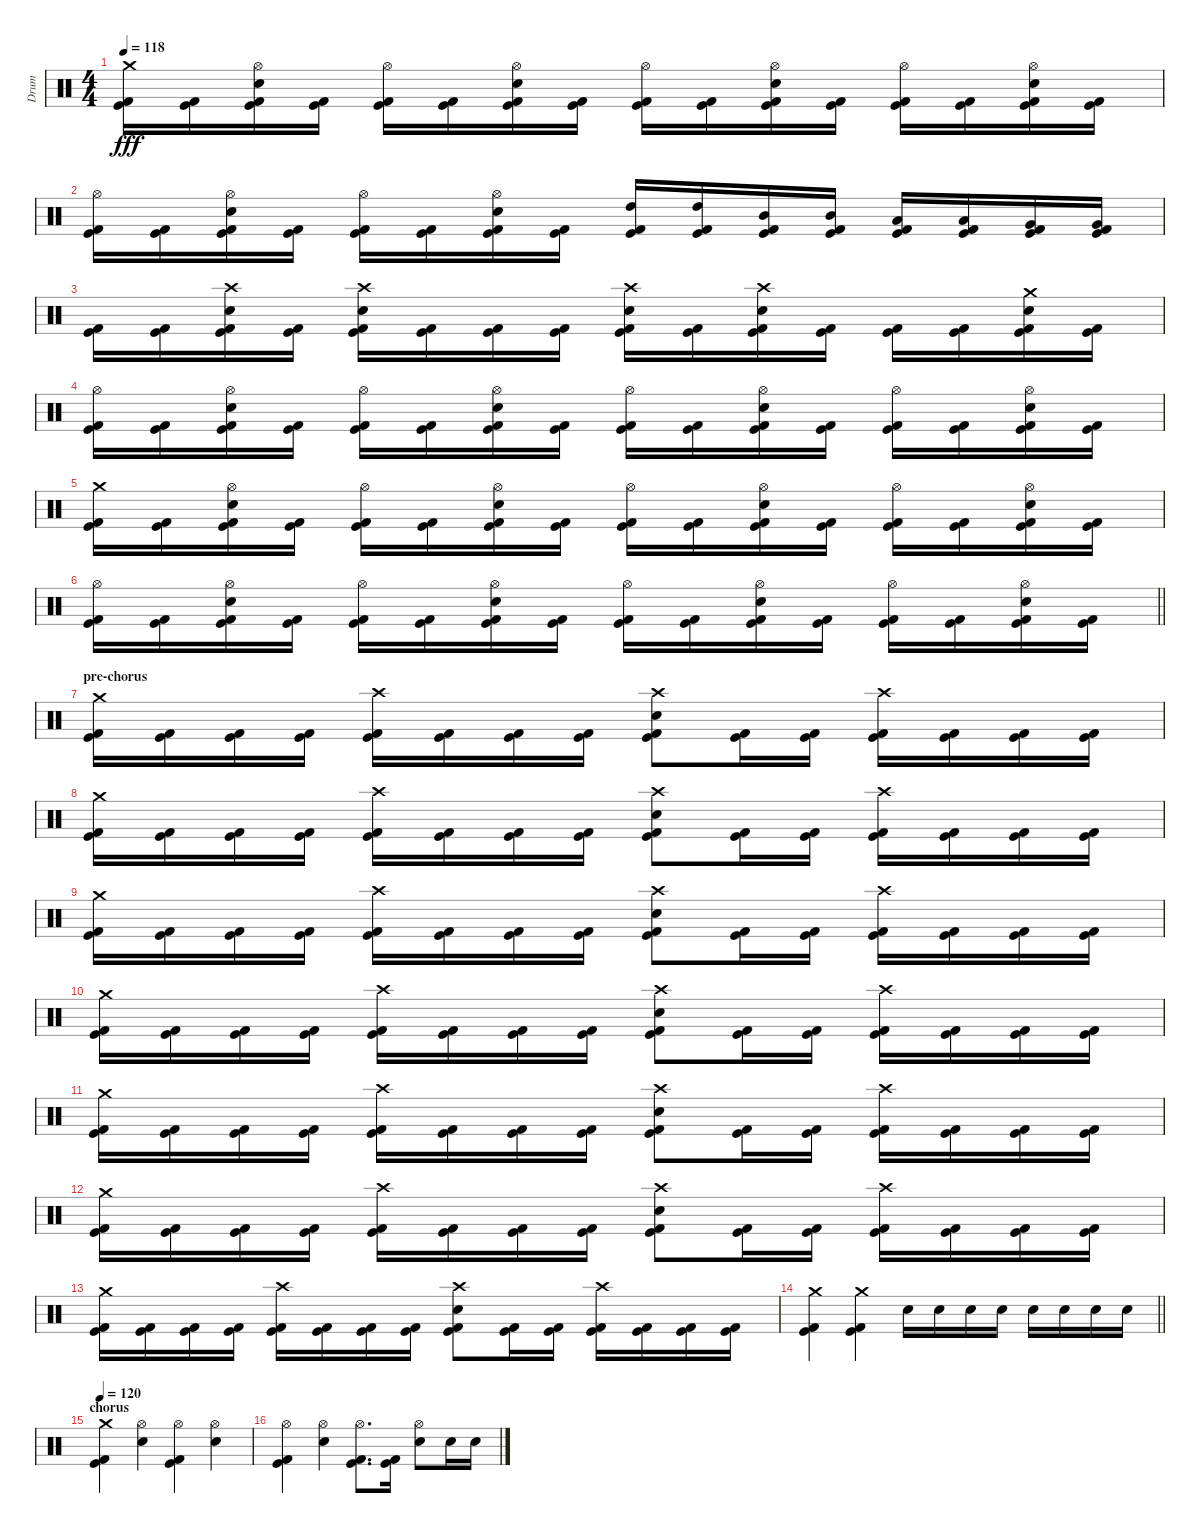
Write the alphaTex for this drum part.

\track ("Drum" "Drum") {instrument percussion}
\staff {score}
\articulation defaults
\ts (4 4)
\tempo 118
\clef neutral
\ks c
("Crash medium (hit)" "Kick (hit)" "Kick (hit) 2").16{dy fff} ("Kick (hit)" "Kick (hit) 2").16 ("Hi-Hat (open)" "Electric Snare (hit)" "Kick (hit)" "Kick (hit) 2").16 ("Kick (hit)" "Kick (hit) 2").16 ("Hi-Hat (open)" "Kick (hit)" "Kick (hit) 2").16 ("Kick (hit)" "Kick (hit) 2").16 ("Hi-Hat (open)" "Electric Snare (hit)" "Kick (hit)" "Kick (hit) 2").16 ("Kick (hit)" "Kick (hit) 2").16 ("Hi-Hat (open)" "Kick (hit)" "Kick (hit) 2").16 ("Kick (hit)" "Kick (hit) 2").16 ("Hi-Hat (open)" "Electric Snare (hit)" "Kick (hit)" "Kick (hit) 2").16 ("Kick (hit)" "Kick (hit) 2").16 ("Hi-Hat (open)" "Kick (hit)" "Kick (hit) 2").16 ("Kick (hit)" "Kick (hit) 2").16 ("Hi-Hat (open)" "Electric Snare (hit)" "Kick (hit)" "Kick (hit) 2").16 ("Kick (hit)" "Kick (hit) 2").16 |
("Hi-Hat (open)" "Kick (hit)" "Kick (hit) 2").16 ("Kick (hit)" "Kick (hit) 2").16 ("Hi-Hat (open)" "Electric Snare (hit)" "Kick (hit)" "Kick (hit) 2").16 ("Kick (hit)" "Kick (hit) 2").16 ("Hi-Hat (open)" "Kick (hit)" "Kick (hit) 2").16 ("Kick (hit)" "Kick (hit) 2").16 ("Hi-Hat (open)" "Electric Snare (hit)" "Kick (hit)" "Kick (hit) 2").16 ("Kick (hit)" "Kick (hit) 2").16 ("High Tom (hit)" "Kick (hit)" "Kick (hit) 2").16 ("High Tom (hit)" "Kick (hit)" "Kick (hit) 2").16 ("Mid Tom (hit)" "Kick (hit)" "Kick (hit) 2").16 ("Mid Tom (hit)" "Kick (hit)" "Kick (hit) 2").16 ("Low Tom (hit)" "Kick (hit)" "Kick (hit) 2").16 ("Low Tom (hit)" "Kick (hit)" "Kick (hit) 2").16 ("Very Low Tom (hit)" "Kick (hit)" "Kick (hit) 2").16 ("Very Low Tom (hit)" "Kick (hit)" "Kick (hit) 2").16 |
("Kick (hit)" "Kick (hit) 2").16 ("Kick (hit)" "Kick (hit) 2").16 ("Crash high (hit)" "Electric Snare (hit)" "Kick (hit)" "Kick (hit) 2").16 ("Kick (hit)" "Kick (hit) 2").16 ("Crash high (hit)" "Electric Snare (hit)" "Kick (hit)" "Kick (hit) 2").16 ("Kick (hit)" "Kick (hit) 2").16 ("Kick (hit)" "Kick (hit) 2").16 ("Kick (hit)" "Kick (hit) 2").16 ("Crash high (hit)" "Electric Snare (hit)" "Kick (hit)" "Kick (hit) 2").16 ("Kick (hit)" "Kick (hit) 2").16 ("Crash high (hit)" "Electric Snare (hit)" "Kick (hit)" "Kick (hit) 2").16 ("Kick (hit)" "Kick (hit) 2").16 ("Kick (hit)" "Kick (hit) 2").16 ("Kick (hit)" "Kick (hit) 2").16 ("Crash medium (hit)" "Electric Snare (hit)" "Kick (hit)" "Kick (hit) 2").16 ("Kick (hit)" "Kick (hit) 2").16 |
("Hi-Hat (open)" "Kick (hit)" "Kick (hit) 2").16 ("Kick (hit)" "Kick (hit) 2").16 ("Hi-Hat (open)" "Electric Snare (hit)" "Kick (hit)" "Kick (hit) 2").16 ("Kick (hit)" "Kick (hit) 2").16 ("Hi-Hat (open)" "Kick (hit)" "Kick (hit) 2").16 ("Kick (hit)" "Kick (hit) 2").16 ("Hi-Hat (open)" "Electric Snare (hit)" "Kick (hit)" "Kick (hit) 2").16 ("Kick (hit)" "Kick (hit) 2").16 ("Hi-Hat (open)" "Kick (hit)" "Kick (hit) 2").16 ("Kick (hit)" "Kick (hit) 2").16 ("Hi-Hat (open)" "Electric Snare (hit)" "Kick (hit)" "Kick (hit) 2").16 ("Kick (hit)" "Kick (hit) 2").16 ("Hi-Hat (open)" "Kick (hit)" "Kick (hit) 2").16 ("Kick (hit)" "Kick (hit) 2").16 ("Hi-Hat (open)" "Electric Snare (hit)" "Kick (hit)" "Kick (hit) 2").16 ("Kick (hit)" "Kick (hit) 2").16 |
("Crash medium (hit)" "Kick (hit)" "Kick (hit) 2").16 ("Kick (hit)" "Kick (hit) 2").16 ("Hi-Hat (open)" "Electric Snare (hit)" "Kick (hit)" "Kick (hit) 2").16 ("Kick (hit)" "Kick (hit) 2").16 ("Hi-Hat (open)" "Kick (hit)" "Kick (hit) 2").16 ("Kick (hit)" "Kick (hit) 2").16 ("Hi-Hat (open)" "Electric Snare (hit)" "Kick (hit)" "Kick (hit) 2").16 ("Kick (hit)" "Kick (hit) 2").16 ("Hi-Hat (open)" "Kick (hit)" "Kick (hit) 2").16 ("Kick (hit)" "Kick (hit) 2").16 ("Hi-Hat (open)" "Electric Snare (hit)" "Kick (hit)" "Kick (hit) 2").16 ("Kick (hit)" "Kick (hit) 2").16 ("Hi-Hat (open)" "Kick (hit)" "Kick (hit) 2").16 ("Kick (hit)" "Kick (hit) 2").16 ("Hi-Hat (open)" "Electric Snare (hit)" "Kick (hit)" "Kick (hit) 2").16 ("Kick (hit)" "Kick (hit) 2").16 |
\barLineRight lightlight
("Hi-Hat (open)" "Kick (hit)" "Kick (hit) 2").16 ("Kick (hit)" "Kick (hit) 2").16 ("Hi-Hat (open)" "Electric Snare (hit)" "Kick (hit)" "Kick (hit) 2").16 ("Kick (hit)" "Kick (hit) 2").16 ("Hi-Hat (open)" "Kick (hit)" "Kick (hit) 2").16 ("Kick (hit)" "Kick (hit) 2").16 ("Hi-Hat (open)" "Electric Snare (hit)" "Kick (hit)" "Kick (hit) 2").16 ("Kick (hit)" "Kick (hit) 2").16 ("Hi-Hat (open)" "Kick (hit)" "Kick (hit) 2").16 ("Kick (hit)" "Kick (hit) 2").16 ("Hi-Hat (open)" "Electric Snare (hit)" "Kick (hit)" "Kick (hit) 2").16 ("Kick (hit)" "Kick (hit) 2").16 ("Hi-Hat (open)" "Kick (hit)" "Kick (hit) 2").16 ("Kick (hit)" "Kick (hit) 2").16 ("Hi-Hat (open)" "Electric Snare (hit)" "Kick (hit)" "Kick (hit) 2").16 ("Kick (hit)" "Kick (hit) 2").16 |
\section ("" "pre-chorus")
("Crash medium (hit)" "Kick (hit)" "Kick (hit) 2").16 ("Kick (hit)" "Kick (hit) 2").16 ("Kick (hit)" "Kick (hit) 2").16 ("Kick (hit)" "Kick (hit) 2").16 ("Crash high (hit)" "Kick (hit)" "Kick (hit) 2").16 ("Kick (hit)" "Kick (hit) 2").16 ("Kick (hit)" "Kick (hit) 2").16 ("Kick (hit)" "Kick (hit) 2").16 ("Crash high (hit)" "Electric Snare (hit)" "Kick (hit)" "Kick (hit) 2").8 ("Kick (hit)" "Kick (hit) 2").16 ("Kick (hit)" "Kick (hit) 2").16 ("Crash high (hit)" "Kick (hit)" "Kick (hit) 2").16 ("Kick (hit)" "Kick (hit) 2").16 ("Kick (hit)" "Kick (hit) 2").16 ("Kick (hit)" "Kick (hit) 2").16 |
("Crash medium (hit)" "Kick (hit)" "Kick (hit) 2").16 ("Kick (hit)" "Kick (hit) 2").16 ("Kick (hit)" "Kick (hit) 2").16 ("Kick (hit)" "Kick (hit) 2").16 ("Crash high (hit)" "Kick (hit)" "Kick (hit) 2").16 ("Kick (hit)" "Kick (hit) 2").16 ("Kick (hit)" "Kick (hit) 2").16 ("Kick (hit)" "Kick (hit) 2").16 ("Crash high (hit)" "Electric Snare (hit)" "Kick (hit)" "Kick (hit) 2").8 ("Kick (hit)" "Kick (hit) 2").16 ("Kick (hit)" "Kick (hit) 2").16 ("Crash high (hit)" "Kick (hit)" "Kick (hit) 2").16 ("Kick (hit)" "Kick (hit) 2").16 ("Kick (hit)" "Kick (hit) 2").16 ("Kick (hit)" "Kick (hit) 2").16 |
("Crash medium (hit)" "Kick (hit)" "Kick (hit) 2").16 ("Kick (hit)" "Kick (hit) 2").16 ("Kick (hit)" "Kick (hit) 2").16 ("Kick (hit)" "Kick (hit) 2").16 ("Crash high (hit)" "Kick (hit)" "Kick (hit) 2").16 ("Kick (hit)" "Kick (hit) 2").16 ("Kick (hit)" "Kick (hit) 2").16 ("Kick (hit)" "Kick (hit) 2").16 ("Crash high (hit)" "Electric Snare (hit)" "Kick (hit)" "Kick (hit) 2").8 ("Kick (hit)" "Kick (hit) 2").16 ("Kick (hit)" "Kick (hit) 2").16 ("Crash high (hit)" "Kick (hit)" "Kick (hit) 2").16 ("Kick (hit)" "Kick (hit) 2").16 ("Kick (hit)" "Kick (hit) 2").16 ("Kick (hit)" "Kick (hit) 2").16 |
("Crash medium (hit)" "Kick (hit)" "Kick (hit) 2").16 ("Kick (hit)" "Kick (hit) 2").16 ("Kick (hit)" "Kick (hit) 2").16 ("Kick (hit)" "Kick (hit) 2").16 ("Crash high (hit)" "Kick (hit)" "Kick (hit) 2").16 ("Kick (hit)" "Kick (hit) 2").16 ("Kick (hit)" "Kick (hit) 2").16 ("Kick (hit)" "Kick (hit) 2").16 ("Crash high (hit)" "Electric Snare (hit)" "Kick (hit)" "Kick (hit) 2").8 ("Kick (hit)" "Kick (hit) 2").16 ("Kick (hit)" "Kick (hit) 2").16 ("Crash high (hit)" "Kick (hit)" "Kick (hit) 2").16 ("Kick (hit)" "Kick (hit) 2").16 ("Kick (hit)" "Kick (hit) 2").16 ("Kick (hit)" "Kick (hit) 2").16 |
("Crash medium (hit)" "Kick (hit)" "Kick (hit) 2").16 ("Kick (hit)" "Kick (hit) 2").16 ("Kick (hit)" "Kick (hit) 2").16 ("Kick (hit)" "Kick (hit) 2").16 ("Crash high (hit)" "Kick (hit)" "Kick (hit) 2").16 ("Kick (hit)" "Kick (hit) 2").16 ("Kick (hit)" "Kick (hit) 2").16 ("Kick (hit)" "Kick (hit) 2").16 ("Crash high (hit)" "Electric Snare (hit)" "Kick (hit)" "Kick (hit) 2").8 ("Kick (hit)" "Kick (hit) 2").16 ("Kick (hit)" "Kick (hit) 2").16 ("Crash high (hit)" "Kick (hit)" "Kick (hit) 2").16 ("Kick (hit)" "Kick (hit) 2").16 ("Kick (hit)" "Kick (hit) 2").16 ("Kick (hit)" "Kick (hit) 2").16 |
("Crash medium (hit)" "Kick (hit)" "Kick (hit) 2").16 ("Kick (hit)" "Kick (hit) 2").16 ("Kick (hit)" "Kick (hit) 2").16 ("Kick (hit)" "Kick (hit) 2").16 ("Crash high (hit)" "Kick (hit)" "Kick (hit) 2").16 ("Kick (hit)" "Kick (hit) 2").16 ("Kick (hit)" "Kick (hit) 2").16 ("Kick (hit)" "Kick (hit) 2").16 ("Crash high (hit)" "Electric Snare (hit)" "Kick (hit)" "Kick (hit) 2").8 ("Kick (hit)" "Kick (hit) 2").16 ("Kick (hit)" "Kick (hit) 2").16 ("Crash high (hit)" "Kick (hit)" "Kick (hit) 2").16 ("Kick (hit)" "Kick (hit) 2").16 ("Kick (hit)" "Kick (hit) 2").16 ("Kick (hit)" "Kick (hit) 2").16 |
("Crash medium (hit)" "Kick (hit)" "Kick (hit) 2").16 ("Kick (hit)" "Kick (hit) 2").16 ("Kick (hit)" "Kick (hit) 2").16 ("Kick (hit)" "Kick (hit) 2").16 ("Crash high (hit)" "Kick (hit)" "Kick (hit) 2").16 ("Kick (hit)" "Kick (hit) 2").16 ("Kick (hit)" "Kick (hit) 2").16 ("Kick (hit)" "Kick (hit) 2").16 ("Crash high (hit)" "Electric Snare (hit)" "Kick (hit)" "Kick (hit) 2").8 ("Kick (hit)" "Kick (hit) 2").16 ("Kick (hit)" "Kick (hit) 2").16 ("Crash high (hit)" "Kick (hit)" "Kick (hit) 2").16 ("Kick (hit)" "Kick (hit) 2").16 ("Kick (hit)" "Kick (hit) 2").16 ("Kick (hit)" "Kick (hit) 2").16 |
\barLineRight lightlight
("Crash medium (hit)" "Kick (hit)" "Kick (hit) 2").4 ("Crash medium (hit)" "Kick (hit)" "Kick (hit) 2").4 "Electric Snare (hit)".16 "Electric Snare (hit)".16 "Electric Snare (hit)".16 "Electric Snare (hit)".16 "Electric Snare (hit)".16 "Electric Snare (hit)".16 "Electric Snare (hit)".16 "Electric Snare (hit)".16 |
\section ("" "chorus")
\tempo 120
("Crash medium (hit)" "Kick (hit)" "Kick (hit) 2").4 ("Electric Snare (hit)" "Hi-Hat (open)").4 ("Hi-Hat (open)" "Kick (hit)" "Kick (hit) 2").4 ("Electric Snare (hit)" "Hi-Hat (open)").4 |
("Hi-Hat (open)" "Kick (hit)" "Kick (hit) 2").4 ("Electric Snare (hit)" "Hi-Hat (open)").4 ("Hi-Hat (open)" "Kick (hit)" "Kick (hit) 2").8{d} ("Kick (hit)" "Kick (hit) 2").16 ("Electric Snare (hit)" "Hi-Hat (open)").8 "Electric Snare (hit)".16 "Electric Snare (hit)".16
